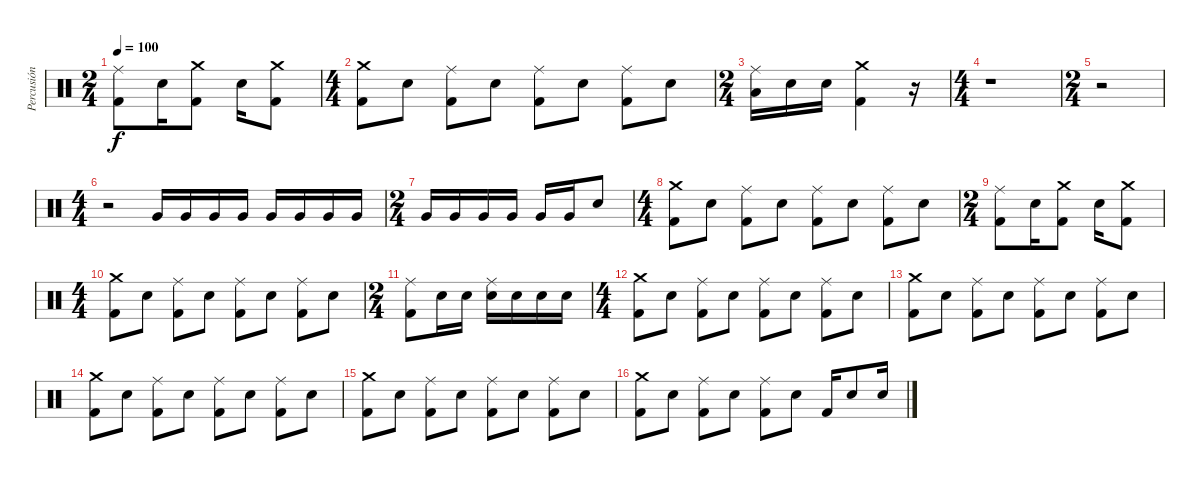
\track ("Percusión" "Percusión") {instrument percussion}
\staff {score}
\articulation defaults
\ts (2 4)
\tempo 100
\clef neutral
\ks c
("Ride (middle)" "Kick (hit) 2").8{dy f} "Snare (hit) 2".16 ("Crash medium (hit)" "Kick (hit) 2").8 "Snare (hit) 2".16 ("Kick (hit) 2" "Crash medium (hit)").8 |
\ts (4 4)
("Crash medium (hit)" "Kick (hit) 2").8 "Snare (hit) 2".8 ("Ride (middle)" "Kick (hit) 2").8 "Snare (hit) 2".8 ("Ride (middle)" "Kick (hit) 2").8 "Snare (hit) 2".8 ("Ride (middle)" "Kick (hit) 2").8 "Snare (hit) 2".8 |
\ts (2 4)
("Low Tom (hit)" "Ride (middle)").16 "Snare (hit) 2".16 "Snare (hit) 2".16 ("Kick (hit) 2" "Crash medium (hit)").4 r.16 |
\ts (4 4)
r.1 |
\ts (2 4)
r.2 |
\ts (4 4)
r.2 "Very Low Tom (hit)".16 "Very Low Tom (hit)".16 "Very Low Tom (hit)".16 "Very Low Tom (hit)".16 "Very Low Tom (hit)".16 "Very Low Tom (hit)".16 "Very Low Tom (hit)".16 "Very Low Tom (hit)".16 |
\ts (2 4)
"Very Low Tom (hit)".16 "Very Low Tom (hit)".16 "Very Low Tom (hit)".16 "Very Low Tom (hit)".16 "Very Low Tom (hit)".16 "Very Low Tom (hit)".16 "Snare (hit) 2".8 |
\ts (4 4)
("Crash medium (hit)" "Kick (hit) 2").8 "Snare (hit) 2".8 ("Ride (middle)" "Kick (hit) 2").8 "Snare (hit) 2".8 ("Ride (middle)" "Kick (hit) 2").8 "Snare (hit) 2".8 ("Ride (middle)" "Kick (hit) 2").8 "Snare (hit) 2".8 |
\ts (2 4)
("Ride (middle)" "Kick (hit) 2").8 "Snare (hit) 2".16 ("Crash medium (hit)" "Kick (hit) 2").8 "Snare (hit) 2".16 ("Kick (hit) 2" "Crash medium (hit)").8 |
\ts (4 4)
("Crash medium (hit)" "Kick (hit) 2").8 "Snare (hit) 2".8 ("Ride (middle)" "Kick (hit) 2").8 "Snare (hit) 2".8 ("Ride (middle)" "Kick (hit) 2").8 "Snare (hit) 2".8 ("Ride (middle)" "Kick (hit) 2").8 "Snare (hit) 2".8 |
\ts (2 4)
("Kick (hit) 2" "Ride (middle)").8 "Snare (hit) 2".16 "Snare (hit) 2".16 ("Ride (middle)" "Snare (hit) 2").16 "Snare (hit) 2".16 "Snare (hit) 2".16 "Snare (hit) 2".16 |
\ts (4 4)
("Crash medium (hit)" "Kick (hit) 2").8 "Snare (hit) 2".8 ("Ride (middle)" "Kick (hit) 2").8 "Snare (hit) 2".8 ("Ride (middle)" "Kick (hit) 2").8 "Snare (hit) 2".8 ("Ride (middle)" "Kick (hit) 2").8 "Snare (hit) 2".8 |
("Crash medium (hit)" "Kick (hit) 2").8 "Snare (hit) 2".8 ("Ride (middle)" "Kick (hit) 2").8 "Snare (hit) 2".8 ("Ride (middle)" "Kick (hit) 2").8 "Snare (hit) 2".8 ("Ride (middle)" "Kick (hit) 2").8 "Snare (hit) 2".8 |
("Crash medium (hit)" "Kick (hit) 2").8 "Snare (hit) 2".8 ("Ride (middle)" "Kick (hit) 2").8 "Snare (hit) 2".8 ("Ride (middle)" "Kick (hit) 2").8 "Snare (hit) 2".8 ("Ride (middle)" "Kick (hit) 2").8 "Snare (hit) 2".8 |
("Crash medium (hit)" "Kick (hit) 2").8 "Snare (hit) 2".8 ("Ride (middle)" "Kick (hit) 2").8 "Snare (hit) 2".8 ("Ride (middle)" "Kick (hit) 2").8 "Snare (hit) 2".8 ("Ride (middle)" "Kick (hit) 2").8 "Snare (hit) 2".8 |
("Crash medium (hit)" "Kick (hit) 2").8 "Snare (hit) 2".8 ("Ride (middle)" "Kick (hit) 2").8 "Snare (hit) 2".8 ("Ride (middle)" "Kick (hit) 2").8 "Snare (hit) 2".8 "Kick (hit) 2".16 "Snare (hit) 2".8 "Snare (hit) 2".16
